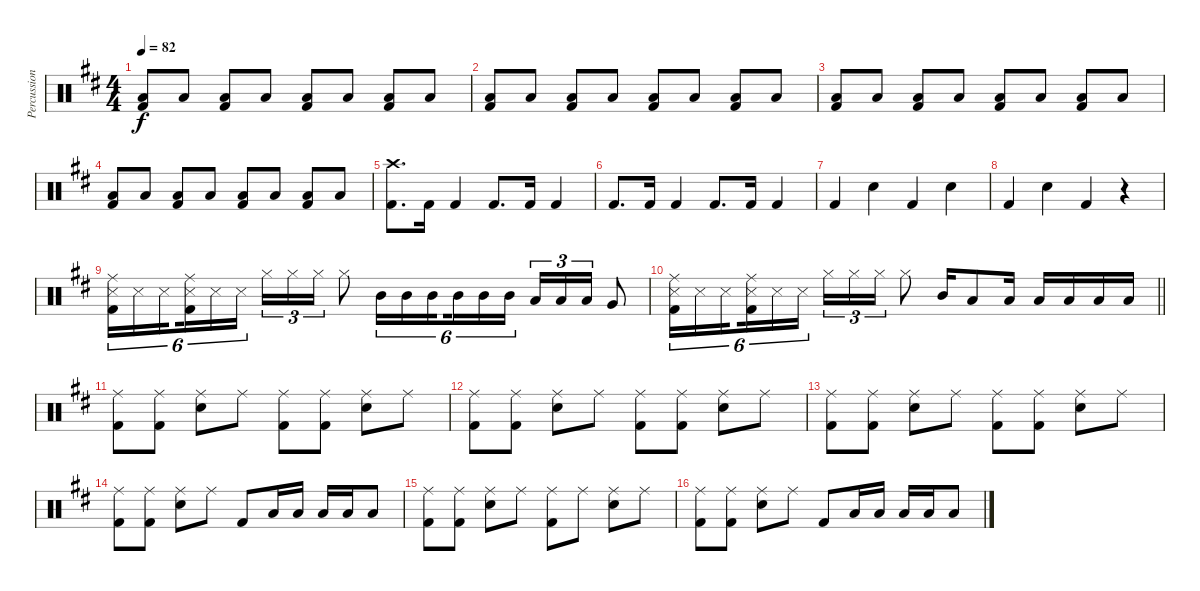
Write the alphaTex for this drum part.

\track ("Percussion" "Percussion") {instrument percussion}
\staff {score}
\articulation defaults
\ts (4 4)
\tempo 82
\clef neutral
\ks d
("Low Floor Tom (hit)" "Kick (hit) 2").8{dy f} "Low Floor Tom (hit)".8 ("Low Floor Tom (hit)" "Kick (hit) 2").8 "Low Floor Tom (hit)".8 ("Low Floor Tom (hit)" "Kick (hit) 2").8 "Low Floor Tom (hit)".8 ("Low Floor Tom (hit)" "Kick (hit) 2").8 "Low Floor Tom (hit)".8 |
("Low Floor Tom (hit)" "Kick (hit) 2").8 "Low Floor Tom (hit)".8 ("Low Floor Tom (hit)" "Kick (hit) 2").8 "Low Floor Tom (hit)".8 ("Low Floor Tom (hit)" "Kick (hit) 2").8 "Low Floor Tom (hit)".8 ("Low Floor Tom (hit)" "Kick (hit) 2").8 "Low Floor Tom (hit)".8 |
("Low Floor Tom (hit)" "Kick (hit) 2").8 "Low Floor Tom (hit)".8 ("Low Floor Tom (hit)" "Kick (hit) 2").8 "Low Floor Tom (hit)".8 ("Low Floor Tom (hit)" "Kick (hit) 2").8 "Low Floor Tom (hit)".8 ("Low Floor Tom (hit)" "Kick (hit) 2").8 "Low Floor Tom (hit)".8 |
("Low Floor Tom (hit)" "Kick (hit) 2").8 "Low Floor Tom (hit)".8 ("Low Floor Tom (hit)" "Kick (hit) 2").8 "Low Floor Tom (hit)".8 ("Low Floor Tom (hit)" "Kick (hit) 2").8 "Low Floor Tom (hit)".8 ("Low Floor Tom (hit)" "Kick (hit) 2").8 "Low Floor Tom (hit)".8 |
("Crash high (hit)" "Kick (hit) 2").8{d} "Kick (hit) 2".16 "Kick (hit) 2".4 "Kick (hit) 2".8{d} "Kick (hit) 2".16 "Kick (hit) 2".4 |
"Kick (hit) 2".8{d} "Kick (hit) 2".16 "Kick (hit) 2".4 "Kick (hit) 2".8{d} "Kick (hit) 2".16 "Kick (hit) 2".4 |
"Kick (hit) 2".4 "Snare (hit) 2".4 "Kick (hit) 2".4 "Snare (hit) 2".4 |
"Kick (hit) 2".4 "Snare (hit) 2".4 "Kick (hit) 2".4 r.4 |
("Snare (side stick) 3" "Kick (hit) 2" "Ride (middle)").16{tu (6 4)} "Snare (side stick) 3".16{tu (6 4)} "Snare (side stick) 3".16{tu (6 4) beam splitsecondary} ("Snare (side stick) 3" "Kick (hit) 2" "Ride (middle)").16{tu (6 4)} "Snare (side stick) 3".16{tu (6 4)} "Snare (side stick) 3".16{tu (6 4)} "Hi-Hat (closed)".16{tu (3 2)} "Hi-Hat (closed)".16{tu (3 2)} "Hi-Hat (closed)".16{tu (3 2)} "Hi-Hat (closed)".8 "Mid Tom (hit)".16{tu (6 4)} "Mid Tom (hit)".16{tu (6 4)} "Mid Tom (hit)".16{tu (6 4) beam splitsecondary} "Mid Tom (hit)".16{tu (6 4)} "Mid Tom (hit)".16{tu (6 4)} "Mid Tom (hit)".16{tu (6 4)} "Low Tom (hit)".16{tu (3 2)} "Low Tom (hit)".16{tu (3 2)} "Low Tom (hit)".16{tu (3 2)} "Very Low Tom (hit)".8 |
\barLineRight lightlight
("Snare (side stick) 3" "Kick (hit) 2" "Ride (middle)").16{tu (6 4)} "Snare (side stick) 3".16{tu (6 4)} "Snare (side stick) 3".16{tu (6 4) beam splitsecondary} ("Snare (side stick) 3" "Kick (hit) 2" "Ride (middle)").16{tu (6 4)} "Snare (side stick) 3".16{tu (6 4)} "Snare (side stick) 3".16{tu (6 4)} "Hi-Hat (closed)".16{tu (3 2)} "Hi-Hat (closed)".16{tu (3 2)} "Hi-Hat (closed)".16{tu (3 2)} "Hi-Hat (closed)".8 "Mid Tom (hit)".16 "Low Floor Tom (hit)".8 "Low Floor Tom (hit)".16 "Low Floor Tom (hit)".16 "Low Floor Tom (hit)".16 "Low Floor Tom (hit)".16 "Low Floor Tom (hit)".16 |
("Ride (middle)" "Kick (hit) 2").8 ("Ride (middle)" "Kick (hit) 2").8 ("Ride (middle)" "Snare (hit) 2").8 "Ride (middle)".8 ("Ride (middle)" "Kick (hit) 2").8 ("Ride (middle)" "Kick (hit) 2").8 ("Ride (middle)" "Snare (hit) 2").8 "Ride (middle)".8 |
("Ride (middle)" "Kick (hit) 2").8 ("Ride (middle)" "Kick (hit) 2").8 ("Ride (middle)" "Snare (hit) 2").8 "Ride (middle)".8 ("Ride (middle)" "Kick (hit) 2").8 ("Ride (middle)" "Kick (hit) 2").8 ("Ride (middle)" "Snare (hit) 2").8 "Ride (middle)".8 |
("Ride (middle)" "Kick (hit) 2").8 ("Ride (middle)" "Kick (hit) 2").8 ("Ride (middle)" "Snare (hit) 2").8 "Ride (middle)".8 ("Ride (middle)" "Kick (hit) 2").8 ("Ride (middle)" "Kick (hit) 2").8 ("Ride (middle)" "Snare (hit) 2").8 "Ride (middle)".8 |
("Ride (middle)" "Kick (hit) 2").8 ("Ride (middle)" "Kick (hit) 2").8 ("Ride (middle)" "Snare (hit) 2").8 "Ride (middle)".8 "Kick (hit) 2".8 "Low Floor Tom (hit)".16 "Low Floor Tom (hit)".16 "Low Floor Tom (hit)".16 "Low Floor Tom (hit)".16 "Low Floor Tom (hit)".8 |
("Ride (middle)" "Kick (hit) 2").8 ("Ride (middle)" "Kick (hit) 2").8 ("Ride (middle)" "Snare (hit) 2").8 "Ride (middle)".8 ("Ride (middle)" "Kick (hit) 2").8 "Ride (middle)".8 ("Ride (middle)" "Snare (hit) 2").8 "Ride (middle)".8 |
("Ride (middle)" "Kick (hit) 2").8 ("Ride (middle)" "Kick (hit) 2").8 ("Ride (middle)" "Snare (hit) 2").8 "Ride (middle)".8 "Kick (hit) 2".8 "Low Floor Tom (hit)".16 "Low Floor Tom (hit)".16 "Low Floor Tom (hit)".16 "Low Floor Tom (hit)".16 "Low Floor Tom (hit)".8
